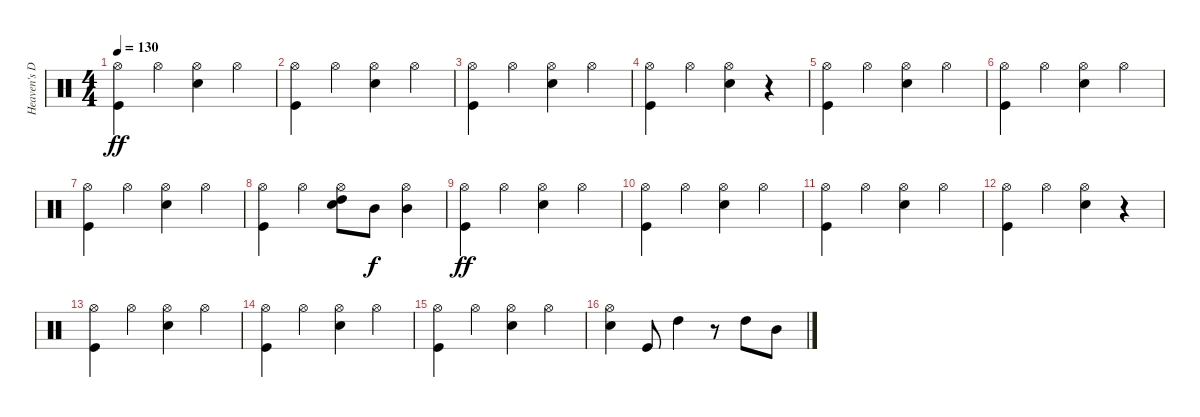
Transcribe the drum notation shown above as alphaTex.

\track ("Heaven's Door" "Heaven's D") {instrument percussion}
\staff {score}
\articulation defaults
\ts (4 4)
\tempo 130
\clef neutral
\ks c
("Hi-Hat (open)" "Kick (hit)").4{dy ff} "Hi-Hat (open)".4 ("Hi-Hat (open)" "Electric Snare (hit)").4 "Hi-Hat (open)".4 |
("Hi-Hat (open)" "Kick (hit)").4 "Hi-Hat (open)".4 ("Electric Snare (hit)" "Hi-Hat (open)").4 "Hi-Hat (open)".4 |
("Kick (hit)" "Hi-Hat (open)").4 "Hi-Hat (open)".4 ("Electric Snare (hit)" "Hi-Hat (open)").4 "Hi-Hat (open)".4 |
("Hi-Hat (open)" "Kick (hit)").4 "Hi-Hat (open)".4 ("Hi-Hat (open)" "Electric Snare (hit)").4 r.4 |
("Hi-Hat (open)" "Kick (hit)").4 "Hi-Hat (open)".4 ("Hi-Hat (open)" "Electric Snare (hit)").4 "Hi-Hat (open)".4 |
("Hi-Hat (open)" "Kick (hit)").4 "Hi-Hat (open)".4 ("Electric Snare (hit)" "Hi-Hat (open)").4 "Hi-Hat (open)".4 |
("Kick (hit)" "Hi-Hat (open)").4 "Hi-Hat (open)".4 ("Electric Snare (hit)" "Hi-Hat (open)").4 "Hi-Hat (open)".4 |
("Hi-Hat (open)" "Kick (hit)").4 "Hi-Hat (open)".4 ("High Tom (hit)" "Hi-Hat (open)" "Electric Snare (hit)").8 "Mid Tom (hit)".8{dy f} ("Mid Tom (hit)" "Hi-Hat (open)").4 |
("Hi-Hat (open)" "Kick (hit)").4{dy ff} "Hi-Hat (open)".4 ("Hi-Hat (open)" "Electric Snare (hit)").4 "Hi-Hat (open)".4 |
("Hi-Hat (open)" "Kick (hit)").4 "Hi-Hat (open)".4 ("Electric Snare (hit)" "Hi-Hat (open)").4 "Hi-Hat (open)".4 |
("Kick (hit)" "Hi-Hat (open)").4 "Hi-Hat (open)".4 ("Electric Snare (hit)" "Hi-Hat (open)").4 "Hi-Hat (open)".4 |
("Hi-Hat (open)" "Kick (hit)").4 "Hi-Hat (open)".4 ("Hi-Hat (open)" "Electric Snare (hit)").4 r.4 |
("Hi-Hat (open)" "Kick (hit)").4 "Hi-Hat (open)".4 ("Hi-Hat (open)" "Electric Snare (hit)").4 "Hi-Hat (open)".4 |
("Hi-Hat (open)" "Kick (hit)").4 "Hi-Hat (open)".4 ("Electric Snare (hit)" "Hi-Hat (open)").4 "Hi-Hat (open)".4 |
("Kick (hit)" "Hi-Hat (open)").4 "Hi-Hat (open)".4 ("Electric Snare (hit)" "Hi-Hat (open)").4 "Hi-Hat (open)".4 |
("Hi-Hat (open)" "Electric Snare (hit)").4 "Kick (hit)".8 "High Tom (hit)".4 r.8 "High Tom (hit)".8 "Mid Tom (hit)".8
